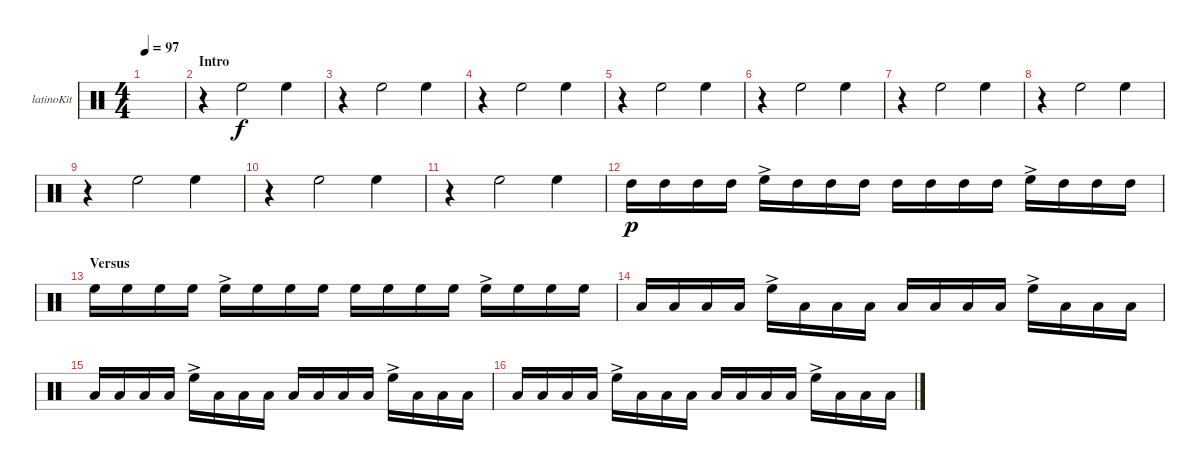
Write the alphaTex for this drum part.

\bracketExtendMode groupsimilarinstruments
\firstSystemTrackNameOrientation horizontal
\otherSystemsTrackNameOrientation horizontal
\track ("Kit-Latino" "latinoKit") {instrument percussion}
\staff {score}
\articulation defaults
\ts (4 4)
\tempo 97
\clef neutral
\scale
0.262911
\ks c
|
\section ("" "Intro")
\scale
0.333333 r.4 "High Floor Tom (hit)".2 "High Floor Tom (hit)".4 |
\scale
0.333333 r.4 "High Floor Tom (hit)".2 "High Floor Tom (hit)".4 |
\scale
0.333333 r.4 "High Floor Tom (hit)".2 "High Floor Tom (hit)".4 |
\scale
0.333333 r.4 "High Floor Tom (hit)".2 "High Floor Tom (hit)".4 |
r.4 "High Floor Tom (hit)".2 "High Floor Tom (hit)".4 |
r.4 "High Floor Tom (hit)".2 "High Floor Tom (hit)".4 |
r.4 "High Floor Tom (hit)".2 "High Floor Tom (hit)".4 |
r.4 "High Floor Tom (hit)".2 "High Floor Tom (hit)".4 |
r.4 "High Floor Tom (hit)".2 "High Floor Tom (hit)".4 |
r.4 "High Floor Tom (hit)".2 "High Floor Tom (hit)".4 |
\scale
0.333333 "High Tom (hit)".16{dy p} "High Tom (hit)".16 "High Tom (hit)".16 "High Tom (hit)".16 "High Floor Tom (hit)"{ac}.16 "High Tom (hit)".16 "High Tom (hit)".16 "High Tom (hit)".16 "High Tom (hit)".16 "High Tom (hit)".16 "High Tom (hit)".16 "High Tom (hit)".16 "High Floor Tom (hit)"{ac}.16 "High Tom (hit)".16 "High Tom (hit)".16 "High Tom (hit)".16 |
\section ("" "Versus")
\scale
0.333333 "High Floor Tom (hit)".16 "High Floor Tom (hit)".16 "High Floor Tom (hit)".16 "High Floor Tom (hit)".16 "High Floor Tom (hit)"{ac}.16 "High Floor Tom (hit)".16 "High Floor Tom (hit)".16 "High Floor Tom (hit)".16 "High Floor Tom (hit)".16 "High Floor Tom (hit)".16 "High Floor Tom (hit)".16 "High Floor Tom (hit)".16 "High Floor Tom (hit)"{ac}.16 "High Floor Tom (hit)".16 "High Floor Tom (hit)".16 "High Floor Tom (hit)".16 |
\scale
0.333333 "Low Tom (hit)".16 "Low Tom (hit)".16 "Low Tom (hit)".16 "Low Tom (hit)".16 "High Floor Tom (hit)"{ac}.16 "Low Tom (hit)".16 "Low Tom (hit)".16 "Low Tom (hit)".16 "Low Tom (hit)".16 "Low Tom (hit)".16 "Low Tom (hit)".16 "Low Tom (hit)".16 "High Floor Tom (hit)"{ac}.16 "Low Tom (hit)".16 "Low Tom (hit)".16 "Low Tom (hit)".16 |
\scale
0.333333 "Low Tom (hit)".16 "Low Tom (hit)".16 "Low Tom (hit)".16 "Low Tom (hit)".16 "High Floor Tom (hit)"{ac}.16 "Low Tom (hit)".16 "Low Tom (hit)".16 "Low Tom (hit)".16 "Low Tom (hit)".16 "Low Tom (hit)".16 "Low Tom (hit)".16 "Low Tom (hit)".16 "High Floor Tom (hit)"{ac}.16 "Low Tom (hit)".16 "Low Tom (hit)".16 "Low Tom (hit)".16 |
"Low Tom (hit)".16 "Low Tom (hit)".16 "Low Tom (hit)".16 "Low Tom (hit)".16 "High Floor Tom (hit)"{ac}.16 "Low Tom (hit)".16 "Low Tom (hit)".16 "Low Tom (hit)".16 "Low Tom (hit)".16 "Low Tom (hit)".16 "Low Tom (hit)".16 "Low Tom (hit)".16 "High Floor Tom (hit)"{ac}.16 "Low Tom (hit)".16 "Low Tom (hit)".16 "Low Tom (hit)".16
